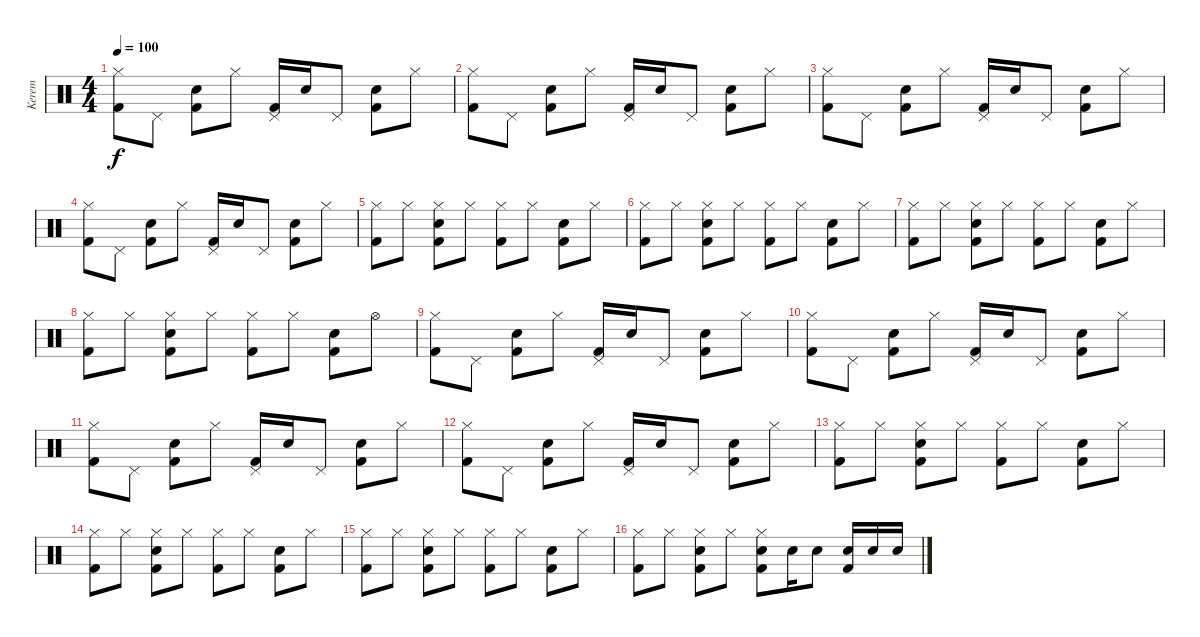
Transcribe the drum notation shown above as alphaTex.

\track ("Kerem" "Kerem") {instrument percussion}
\staff {score}
\articulation defaults
\ts (4 4)
\tempo 100
\clef neutral
\ks c
("Hi-Hat (closed)" "Kick (hit) 2").8{dy f} "Pedal Hi-Hat (hit)".8 ("Electric Snare (hit)" "Kick (hit) 2").8 "Hi-Hat (closed)".8 ("Pedal Hi-Hat (hit)" "Kick (hit) 2").16 "Electric Snare (hit)".16 "Pedal Hi-Hat (hit)".8 ("Electric Snare (hit)" "Kick (hit) 2").8 "Hi-Hat (closed)".8 |
("Hi-Hat (closed)" "Kick (hit) 2").8 "Pedal Hi-Hat (hit)".8 ("Electric Snare (hit)" "Kick (hit) 2").8 "Hi-Hat (closed)".8 ("Pedal Hi-Hat (hit)" "Kick (hit) 2").16 "Electric Snare (hit)".16 "Pedal Hi-Hat (hit)".8 ("Electric Snare (hit)" "Kick (hit) 2").8 "Hi-Hat (closed)".8 |
("Hi-Hat (closed)" "Kick (hit) 2").8 "Pedal Hi-Hat (hit)".8 ("Electric Snare (hit)" "Kick (hit) 2").8 "Hi-Hat (closed)".8 ("Pedal Hi-Hat (hit)" "Kick (hit) 2").16 "Electric Snare (hit)".16 "Pedal Hi-Hat (hit)".8 ("Electric Snare (hit)" "Kick (hit) 2").8 "Hi-Hat (closed)".8 |
("Hi-Hat (closed)" "Kick (hit) 2").8 "Pedal Hi-Hat (hit)".8 ("Electric Snare (hit)" "Kick (hit) 2").8 "Hi-Hat (closed)".8 ("Pedal Hi-Hat (hit)" "Kick (hit) 2").16 "Electric Snare (hit)".16 "Pedal Hi-Hat (hit)".8 ("Electric Snare (hit)" "Kick (hit) 2").8 "Hi-Hat (closed)".8 |
("Hi-Hat (closed)" "Kick (hit) 2").8 "Hi-Hat (closed)".8 ("Hi-Hat (closed)" "Electric Snare (hit)" "Kick (hit) 2").8 "Hi-Hat (closed)".8 ("Hi-Hat (closed)" "Kick (hit) 2").8 "Hi-Hat (closed)".8 ("Electric Snare (hit)" "Kick (hit) 2").8 "Hi-Hat (closed)".8 |
("Hi-Hat (closed)" "Kick (hit) 2").8 "Hi-Hat (closed)".8 ("Hi-Hat (closed)" "Electric Snare (hit)" "Kick (hit) 2").8 "Hi-Hat (closed)".8 ("Hi-Hat (closed)" "Kick (hit) 2").8 "Hi-Hat (closed)".8 ("Electric Snare (hit)" "Kick (hit) 2").8 "Hi-Hat (closed)".8 |
("Hi-Hat (closed)" "Kick (hit) 2").8 "Hi-Hat (closed)".8 ("Hi-Hat (closed)" "Electric Snare (hit)" "Kick (hit) 2").8 "Hi-Hat (closed)".8 ("Hi-Hat (closed)" "Kick (hit) 2").8 "Hi-Hat (closed)".8 ("Electric Snare (hit)" "Kick (hit) 2").8 "Hi-Hat (closed)".8 |
("Hi-Hat (closed)" "Kick (hit) 2").8 "Hi-Hat (closed)".8 ("Hi-Hat (closed)" "Electric Snare (hit)" "Kick (hit) 2").8 "Hi-Hat (closed)".8 ("Hi-Hat (closed)" "Kick (hit) 2").8 "Hi-Hat (closed)".8 ("Electric Snare (hit)" "Kick (hit) 2").8 "Hi-Hat (open)".8 |
("Hi-Hat (closed)" "Kick (hit) 2").8 "Pedal Hi-Hat (hit)".8 ("Electric Snare (hit)" "Kick (hit) 2").8 "Hi-Hat (closed)".8 ("Pedal Hi-Hat (hit)" "Kick (hit) 2").16 "Electric Snare (hit)".16 "Pedal Hi-Hat (hit)".8 ("Electric Snare (hit)" "Kick (hit) 2").8 "Hi-Hat (closed)".8 |
("Hi-Hat (closed)" "Kick (hit) 2").8 "Pedal Hi-Hat (hit)".8 ("Electric Snare (hit)" "Kick (hit) 2").8 "Hi-Hat (closed)".8 ("Pedal Hi-Hat (hit)" "Kick (hit) 2").16 "Electric Snare (hit)".16 "Pedal Hi-Hat (hit)".8 ("Electric Snare (hit)" "Kick (hit) 2").8 "Hi-Hat (closed)".8 |
("Hi-Hat (closed)" "Kick (hit) 2").8 "Pedal Hi-Hat (hit)".8 ("Electric Snare (hit)" "Kick (hit) 2").8 "Hi-Hat (closed)".8 ("Pedal Hi-Hat (hit)" "Kick (hit) 2").16 "Electric Snare (hit)".16 "Pedal Hi-Hat (hit)".8 ("Electric Snare (hit)" "Kick (hit) 2").8 "Hi-Hat (closed)".8 |
("Hi-Hat (closed)" "Kick (hit) 2").8 "Pedal Hi-Hat (hit)".8 ("Electric Snare (hit)" "Kick (hit) 2").8 "Hi-Hat (closed)".8 ("Pedal Hi-Hat (hit)" "Kick (hit) 2").16 "Electric Snare (hit)".16 "Pedal Hi-Hat (hit)".8 ("Electric Snare (hit)" "Kick (hit) 2").8 "Hi-Hat (closed)".8 |
("Hi-Hat (closed)" "Kick (hit) 2").8 "Hi-Hat (closed)".8 ("Hi-Hat (closed)" "Electric Snare (hit)" "Kick (hit) 2").8 "Hi-Hat (closed)".8 ("Hi-Hat (closed)" "Kick (hit) 2").8 "Hi-Hat (closed)".8 ("Electric Snare (hit)" "Kick (hit) 2").8 "Hi-Hat (closed)".8 |
("Hi-Hat (closed)" "Kick (hit) 2").8 "Hi-Hat (closed)".8 ("Hi-Hat (closed)" "Electric Snare (hit)" "Kick (hit) 2").8 "Hi-Hat (closed)".8 ("Hi-Hat (closed)" "Kick (hit) 2").8 "Hi-Hat (closed)".8 ("Electric Snare (hit)" "Kick (hit) 2").8 "Hi-Hat (closed)".8 |
("Hi-Hat (closed)" "Kick (hit) 2").8 "Hi-Hat (closed)".8 ("Hi-Hat (closed)" "Electric Snare (hit)" "Kick (hit) 2").8 "Hi-Hat (closed)".8 ("Hi-Hat (closed)" "Kick (hit) 2").8 "Hi-Hat (closed)".8 ("Electric Snare (hit)" "Kick (hit) 2").8 "Hi-Hat (closed)".8 |
("Hi-Hat (closed)" "Kick (hit) 2").8 "Hi-Hat (closed)".8 ("Hi-Hat (closed)" "Electric Snare (hit)" "Kick (hit) 2").8 "Hi-Hat (closed)".8 ("Hi-Hat (closed)" "Electric Snare (hit)" "Kick (hit) 2").8 "Electric Snare (hit)".16 "Electric Snare (hit)".8 ("Electric Snare (hit)" "Kick (hit) 2").16 "Electric Snare (hit)".16 "Electric Snare (hit)".16
